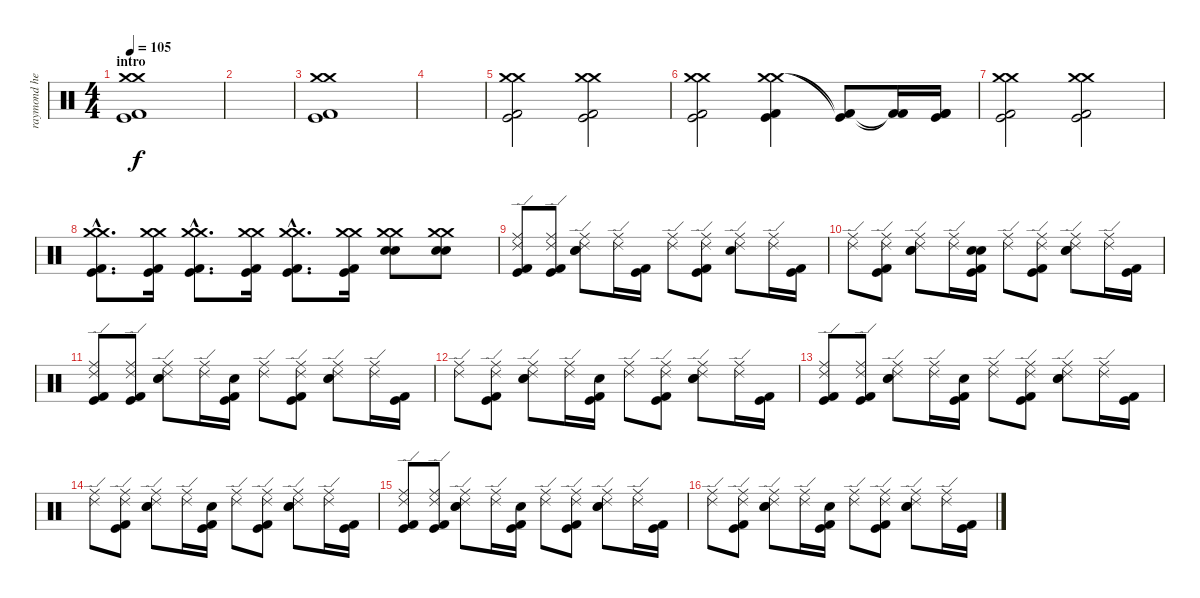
\track ("raymond herrea" "raymond he") {instrument percussion}
\staff {score}
\articulation defaults
\ts (4 4)
\section ("" "intro")
\tempo 105
\clef neutral
\ks c
("Crash medium (hit)" "Crash medium (hit)" "Kick (hit)" "Kick (hit) 2").1{dy f} |
|
("Crash medium (hit)" "Crash medium (hit)" "Kick (hit)" "Kick (hit) 2").1 |
|
("Crash medium (hit)" "Crash medium (hit)" "Kick (hit)" "Kick (hit) 2").2 ("Crash medium (hit)" "Crash medium (hit)" "Kick (hit)" "Kick (hit) 2").2 |
("Crash medium (hit)" "Crash medium (hit)" "Kick (hit)" "Kick (hit) 2").2 ("Crash medium (hit)" "Crash medium (hit)" "Kick (hit)" "Kick (hit) 2").4 ("Kick (hit)"{t} "Kick (hit) 2"{t}).8 ("Kick (hit) 2"{t} "Kick (hit) 2"{t}).16 ("Kick (hit)" "Kick (hit) 2" "Kick (hit) 2").16 |
("Crash medium (hit)" "Crash medium (hit)" "Kick (hit)" "Kick (hit) 2").2 ("Crash medium (hit)" "Crash medium (hit)" "Kick (hit)" "Kick (hit) 2").2 |
("Crash medium (hit)"{hac} "Crash medium (hit)"{hac} "Kick (hit)"{hac} "Kick (hit) 2"{hac}).8{d} ("Crash medium (hit)" "Crash medium (hit)" "Kick (hit)" "Kick (hit) 2").16 ("Crash medium (hit)"{hac} "Crash medium (hit)"{hac} "Kick (hit)"{hac} "Kick (hit) 2"{hac}).8{d} ("Crash medium (hit)" "Crash medium (hit)" "Kick (hit)" "Kick (hit) 2").16 ("Crash medium (hit)"{hac} "Crash medium (hit)"{hac} "Kick (hit)"{hac} "Kick (hit) 2"{hac}).8{d} ("Crash medium (hit)" "Crash medium (hit)" "Kick (hit)" "Kick (hit) 2").16 ("Crash medium (hit)" "Crash medium (hit)" "Electric Snare (hit)" "Snare (hit) 2").8 ("Crash medium (hit)" "Crash medium (hit)" "Electric Snare (hit)" "Snare (hit) 2").8 |
("Ride (middle)" "Ride (edge) 2" "Kick (hit)" "Kick (hit) 2").8 ("Ride (middle)" "Ride (edge) 2" "Kick (hit)" "Kick (hit) 2").8 ("Ride (middle)" "Ride (edge) 2" "Snare (hit) 2" "Electric Snare (hit)").8 ("Ride (middle)" "Ride (edge) 2").16 ("Kick (hit)" "Kick (hit) 2").16 ("Ride (middle)" "Ride (edge) 2").8 ("Ride (middle)" "Ride (edge) 2" "Kick (hit)" "Kick (hit) 2").8 ("Ride (middle)" "Ride (edge) 2" "Snare (hit) 2").8 ("Ride (middle)" "Ride (edge) 2").16 ("Kick (hit)" "Kick (hit) 2").16 |
("Ride (middle)" "Ride (edge) 2").8 ("Ride (middle)" "Ride (edge) 2" "Kick (hit)" "Kick (hit) 2").8 ("Ride (middle)" "Ride (edge) 2" "Snare (hit) 2" "Electric Snare (hit)").8 ("Ride (middle)" "Ride (edge) 2").16 ("Snare (hit)" "Snare (hit)" "Kick (hit)" "Kick (hit) 2").16 ("Ride (middle)" "Ride (edge) 2").8 ("Ride (middle)" "Ride (edge) 2" "Kick (hit)" "Kick (hit) 2").8 ("Ride (middle)" "Ride (edge) 2" "Snare (hit) 2" "Electric Snare (hit)").8 ("Ride (middle)" "Ride (edge) 2").16 ("Kick (hit)" "Kick (hit) 2").16 |
("Ride (middle)" "Ride (edge) 2" "Kick (hit)" "Kick (hit) 2").8 ("Ride (middle)" "Ride (edge) 2" "Kick (hit)" "Kick (hit) 2").8 ("Ride (middle)" "Ride (edge) 2" "Snare (hit) 2" "Electric Snare (hit)").8 ("Ride (middle)" "Ride (edge) 2").16 ("Snare (hit)" "Kick (hit)" "Kick (hit) 2").16 ("Ride (middle)" "Ride (edge) 2").8 ("Ride (middle)" "Ride (edge) 2" "Kick (hit)" "Kick (hit) 2").8 ("Ride (middle)" "Ride (edge) 2" "Snare (hit) 2" "Electric Snare (hit)").8 ("Ride (middle)" "Ride (edge) 2").16 ("Kick (hit)" "Kick (hit) 2").16 |
("Ride (middle)" "Ride (edge) 2").8 ("Ride (middle)" "Ride (edge) 2" "Kick (hit)" "Kick (hit) 2").8 ("Ride (middle)" "Ride (edge) 2" "Snare (hit) 2" "Electric Snare (hit)").8 ("Ride (middle)" "Ride (edge) 2").16 ("Snare (hit)" "Kick (hit)" "Kick (hit) 2").16 ("Ride (middle)" "Ride (edge) 2").8 ("Ride (middle)" "Ride (edge) 2" "Kick (hit)" "Kick (hit) 2").8 ("Ride (middle)" "Ride (edge) 2" "Snare (hit) 2" "Electric Snare (hit)").8 ("Ride (middle)" "Ride (edge) 2").16 ("Kick (hit)" "Kick (hit) 2").16 |
("Ride (middle)" "Ride (edge) 2" "Kick (hit)" "Kick (hit) 2").8 ("Ride (middle)" "Ride (edge) 2" "Kick (hit)" "Kick (hit) 2").8 ("Ride (middle)" "Ride (edge) 2" "Snare (hit) 2" "Electric Snare (hit)").8 ("Ride (middle)" "Ride (edge) 2").16 ("Snare (hit)" "Kick (hit)" "Kick (hit) 2").16 ("Ride (middle)" "Ride (edge) 2").8 ("Ride (middle)" "Ride (edge) 2" "Kick (hit)" "Kick (hit) 2").8 ("Ride (middle)" "Ride (edge) 2" "Snare (hit) 2" "Electric Snare (hit)").8 ("Ride (middle)" "Ride (edge) 2").16 ("Kick (hit)" "Kick (hit) 2").16 |
("Ride (middle)" "Ride (edge) 2").8 ("Ride (middle)" "Ride (edge) 2" "Kick (hit)" "Kick (hit) 2").8 ("Ride (middle)" "Ride (edge) 2" "Snare (hit) 2" "Electric Snare (hit)").8 ("Ride (middle)" "Ride (edge) 2").16 ("Snare (hit)" "Kick (hit)" "Kick (hit) 2").16 ("Ride (middle)" "Ride (edge) 2").8 ("Ride (middle)" "Ride (edge) 2" "Kick (hit)" "Kick (hit) 2").8 ("Ride (middle)" "Ride (edge) 2" "Snare (hit) 2" "Electric Snare (hit)").8 ("Ride (middle)" "Ride (edge) 2").16 ("Kick (hit)" "Kick (hit) 2").16 |
("Ride (middle)" "Ride (edge) 2" "Kick (hit)" "Kick (hit) 2").8 ("Ride (middle)" "Ride (edge) 2" "Kick (hit)" "Kick (hit) 2").8 ("Ride (middle)" "Ride (edge) 2" "Snare (hit) 2" "Electric Snare (hit)").8 ("Ride (middle)" "Ride (edge) 2").16 ("Snare (hit)" "Kick (hit)" "Kick (hit) 2").16 ("Ride (middle)" "Ride (edge) 2").8 ("Ride (middle)" "Ride (edge) 2" "Kick (hit)" "Kick (hit) 2").8 ("Ride (middle)" "Ride (edge) 2" "Snare (hit) 2" "Electric Snare (hit)").8 ("Ride (middle)" "Ride (edge) 2").16 ("Kick (hit)" "Kick (hit) 2").16 |
("Ride (middle)" "Ride (edge) 2").8 ("Ride (middle)" "Ride (edge) 2" "Kick (hit)" "Kick (hit) 2").8 ("Ride (middle)" "Ride (edge) 2" "Snare (hit) 2" "Electric Snare (hit)").8 ("Ride (middle)" "Ride (edge) 2").16 ("Snare (hit)" "Kick (hit)" "Kick (hit) 2").16 ("Ride (middle)" "Ride (edge) 2").8 ("Ride (middle)" "Ride (edge) 2" "Kick (hit)" "Kick (hit) 2").8 ("Ride (middle)" "Ride (edge) 2" "Snare (hit) 2" "Electric Snare (hit)").8 ("Ride (middle)" "Ride (edge) 2").16 ("Kick (hit)" "Kick (hit) 2").16
